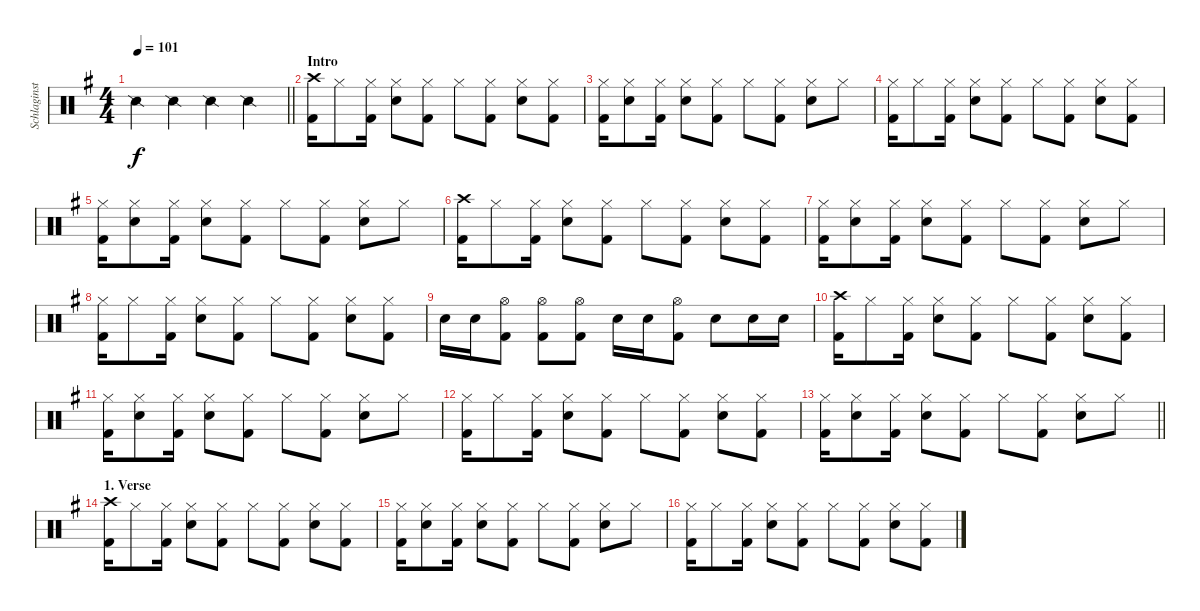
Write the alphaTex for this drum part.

\track ("Schlaginstrumente - Auswahl" "Schlaginst") {instrument percussion}
\staff {score}
\articulation defaults
\ts (4 4)
\tempo 101
\clef neutral
\barLineRight lightlight
\ks g "Snare (side stick) 2".4{dy f} "Snare (side stick) 2".4 "Snare (side stick) 2".4 "Snare (side stick) 2".4
|
\section ("" "Intro")
("Crash high (hit)" "Kick (hit) 2").16 "Hi-Hat (closed)".8 ("Hi-Hat (closed)" "Kick (hit) 2").16 ("Hi-Hat (closed)" "Electric Snare (hit)").8 ("Hi-Hat (closed)" "Kick (hit) 2").8 "Hi-Hat (closed)".8 ("Hi-Hat (closed)" "Kick (hit) 2").8 ("Hi-Hat (closed)" "Electric Snare (hit)").8 ("Hi-Hat (closed)" "Kick (hit) 2").8 |
("Hi-Hat (closed)" "Kick (hit) 2").16 ("Hi-Hat (closed)" "Electric Snare (hit)").8 ("Hi-Hat (closed)" "Kick (hit) 2").16 ("Hi-Hat (closed)" "Electric Snare (hit)").8 ("Hi-Hat (closed)" "Kick (hit) 2").8 "Hi-Hat (closed)".8 ("Hi-Hat (closed)" "Kick (hit) 2").8 ("Hi-Hat (closed)" "Electric Snare (hit)").8 "Hi-Hat (closed)".8 |
("Hi-Hat (closed)" "Kick (hit) 2").16 "Hi-Hat (closed)".8 ("Hi-Hat (closed)" "Kick (hit) 2").16 ("Hi-Hat (closed)" "Electric Snare (hit)").8 ("Hi-Hat (closed)" "Kick (hit) 2").8 "Hi-Hat (closed)".8 ("Hi-Hat (closed)" "Kick (hit) 2").8 ("Hi-Hat (closed)" "Electric Snare (hit)").8 ("Hi-Hat (closed)" "Kick (hit) 2").8 |
("Hi-Hat (closed)" "Kick (hit) 2").16 ("Hi-Hat (closed)" "Electric Snare (hit)").8 ("Hi-Hat (closed)" "Kick (hit) 2").16 ("Hi-Hat (closed)" "Electric Snare (hit)").8 ("Hi-Hat (closed)" "Kick (hit) 2").8 "Hi-Hat (closed)".8 ("Hi-Hat (closed)" "Kick (hit) 2").8 ("Hi-Hat (closed)" "Electric Snare (hit)").8 "Hi-Hat (closed)".8 |
("Crash high (hit)" "Kick (hit) 2").16 "Hi-Hat (closed)".8 ("Hi-Hat (closed)" "Kick (hit) 2").16 ("Hi-Hat (closed)" "Electric Snare (hit)").8 ("Hi-Hat (closed)" "Kick (hit) 2").8 "Hi-Hat (closed)".8 ("Hi-Hat (closed)" "Kick (hit) 2").8 ("Hi-Hat (closed)" "Electric Snare (hit)").8 ("Hi-Hat (closed)" "Kick (hit) 2").8 |
("Hi-Hat (closed)" "Kick (hit) 2").16 ("Hi-Hat (closed)" "Electric Snare (hit)").8 ("Hi-Hat (closed)" "Kick (hit) 2").16 ("Hi-Hat (closed)" "Electric Snare (hit)").8 ("Hi-Hat (closed)" "Kick (hit) 2").8 "Hi-Hat (closed)".8 ("Hi-Hat (closed)" "Kick (hit) 2").8 ("Hi-Hat (closed)" "Electric Snare (hit)").8 "Hi-Hat (closed)".8 |
("Hi-Hat (closed)" "Kick (hit) 2").16 "Hi-Hat (closed)".8 ("Hi-Hat (closed)" "Kick (hit) 2").16 ("Hi-Hat (closed)" "Electric Snare (hit)").8 ("Hi-Hat (closed)" "Kick (hit) 2").8 "Hi-Hat (closed)".8 ("Hi-Hat (closed)" "Kick (hit) 2").8 ("Hi-Hat (closed)" "Electric Snare (hit)").8 ("Hi-Hat (closed)" "Kick (hit) 2").8 |
"Electric Snare (hit)".16 "Electric Snare (hit)".16 ("Hi-Hat (open)" "Kick (hit) 2").8 ("Hi-Hat (open)" "Kick (hit) 2").8 ("Hi-Hat (open)" "Kick (hit) 2").8 "Electric Snare (hit)".16 "Electric Snare (hit)".16 ("Hi-Hat (open)" "Kick (hit) 2").8 "Electric Snare (hit)".8 "Electric Snare (hit)".16 "Electric Snare (hit)".16 |
("Crash high (hit)" "Kick (hit) 2").16 "Hi-Hat (closed)".8 ("Hi-Hat (closed)" "Kick (hit) 2").16 ("Hi-Hat (closed)" "Electric Snare (hit)").8 ("Hi-Hat (closed)" "Kick (hit) 2").8 "Hi-Hat (closed)".8 ("Hi-Hat (closed)" "Kick (hit) 2").8 ("Hi-Hat (closed)" "Electric Snare (hit)").8 ("Hi-Hat (closed)" "Kick (hit) 2").8 |
("Hi-Hat (closed)" "Kick (hit) 2").16 ("Hi-Hat (closed)" "Electric Snare (hit)").8 ("Hi-Hat (closed)" "Kick (hit) 2").16 ("Hi-Hat (closed)" "Electric Snare (hit)").8 ("Hi-Hat (closed)" "Kick (hit) 2").8 "Hi-Hat (closed)".8 ("Hi-Hat (closed)" "Kick (hit) 2").8 ("Hi-Hat (closed)" "Electric Snare (hit)").8 "Hi-Hat (closed)".8 |
("Hi-Hat (closed)" "Kick (hit) 2").16 "Hi-Hat (closed)".8 ("Hi-Hat (closed)" "Kick (hit) 2").16 ("Hi-Hat (closed)" "Electric Snare (hit)").8 ("Hi-Hat (closed)" "Kick (hit) 2").8 "Hi-Hat (closed)".8 ("Hi-Hat (closed)" "Kick (hit) 2").8 ("Hi-Hat (closed)" "Electric Snare (hit)").8 ("Hi-Hat (closed)" "Kick (hit) 2").8 |
\barLineRight lightlight
("Hi-Hat (closed)" "Kick (hit) 2").16 ("Hi-Hat (closed)" "Electric Snare (hit)").8 ("Hi-Hat (closed)" "Kick (hit) 2").16 ("Hi-Hat (closed)" "Electric Snare (hit)").8 ("Hi-Hat (closed)" "Kick (hit) 2").8 "Hi-Hat (closed)".8 ("Hi-Hat (closed)" "Kick (hit) 2").8 ("Hi-Hat (closed)" "Electric Snare (hit)").8 "Hi-Hat (closed)".8 |
\section ("" "1. Verse")
("Crash high (hit)" "Kick (hit) 2").16 "Hi-Hat (closed)".8 ("Hi-Hat (closed)" "Kick (hit) 2").16 ("Hi-Hat (closed)" "Electric Snare (hit)").8 ("Hi-Hat (closed)" "Kick (hit) 2").8 "Hi-Hat (closed)".8 ("Hi-Hat (closed)" "Kick (hit) 2").8 ("Hi-Hat (closed)" "Electric Snare (hit)").8 ("Hi-Hat (closed)" "Kick (hit) 2").8 |
("Hi-Hat (closed)" "Kick (hit) 2").16 ("Hi-Hat (closed)" "Electric Snare (hit)").8 ("Hi-Hat (closed)" "Kick (hit) 2").16 ("Hi-Hat (closed)" "Electric Snare (hit)").8 ("Hi-Hat (closed)" "Kick (hit) 2").8 "Hi-Hat (closed)".8 ("Hi-Hat (closed)" "Kick (hit) 2").8 ("Hi-Hat (closed)" "Electric Snare (hit)").8 "Hi-Hat (closed)".8 |
("Hi-Hat (closed)" "Kick (hit) 2").16 "Hi-Hat (closed)".8 ("Hi-Hat (closed)" "Kick (hit) 2").16 ("Hi-Hat (closed)" "Electric Snare (hit)").8 ("Hi-Hat (closed)" "Kick (hit) 2").8 "Hi-Hat (closed)".8 ("Hi-Hat (closed)" "Kick (hit) 2").8 ("Hi-Hat (closed)" "Electric Snare (hit)").8 ("Hi-Hat (closed)" "Kick (hit) 2").8
